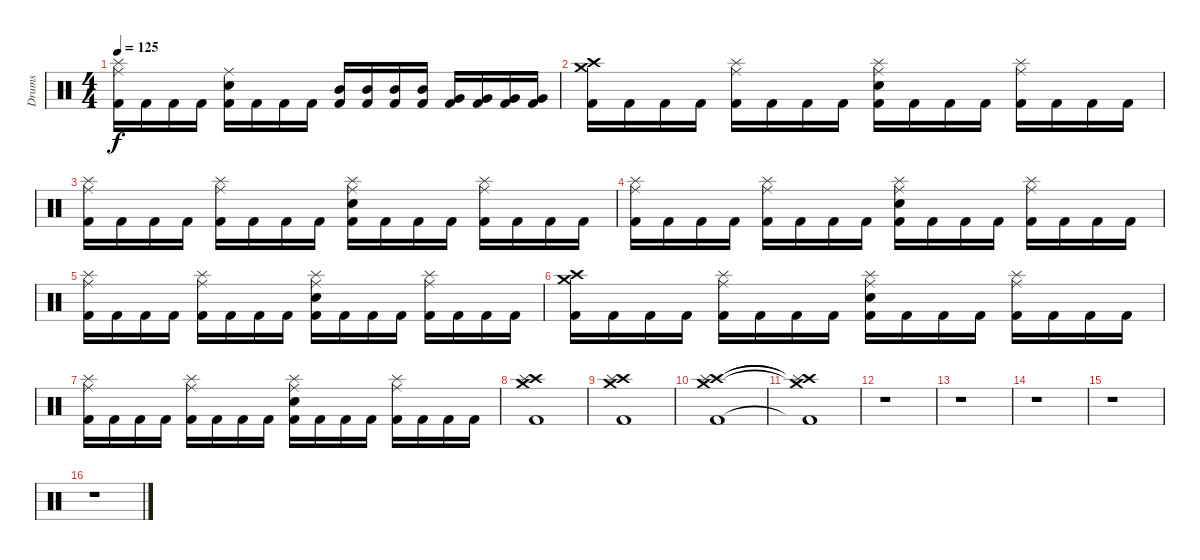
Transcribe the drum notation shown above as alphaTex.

\track ("Drums" "Drums") {instrument percussion}
\staff {score}
\articulation defaults
\ts (4 4)
\tempo 125
\clef neutral
\ks c
("Ride (middle)" "Splash (hit)" "Kick (hit) 2").16{dy f} "Kick (hit) 2".16 "Kick (hit) 2".16 "Kick (hit) 2".16 ("Ride (middle)" "Snare (hit) 2" "Kick (hit) 2").16 "Kick (hit) 2".16 "Kick (hit) 2".16 "Kick (hit) 2".16 ("Mid Tom (hit)" "Kick (hit) 2").16 ("Mid Tom (hit)" "Kick (hit) 2").16 ("Mid Tom (hit)" "Kick (hit) 2").16 ("Mid Tom (hit)" "Kick (hit) 2").16 ("Very Low Tom (hit)" "Kick (hit) 2").16 ("Very Low Tom (hit)" "Kick (hit) 2").16 ("Very Low Tom (hit)" "Kick (hit) 2").16 ("Very Low Tom (hit)" "Kick (hit) 2").16 |
("Crash high (hit)" "Crash medium (hit)" "Kick (hit) 2").16 "Kick (hit) 2".16 "Kick (hit) 2".16 "Kick (hit) 2".16 ("Ride (middle)" "Splash (hit)" "Kick (hit) 2").16 "Kick (hit) 2".16 "Kick (hit) 2".16 "Kick (hit) 2".16 ("Ride (middle)" "Snare (hit) 2" "Splash (hit)" "Kick (hit) 2").16 "Kick (hit) 2".16 "Kick (hit) 2".16 "Kick (hit) 2".16 ("Ride (middle)" "Splash (hit)" "Kick (hit) 2").16 "Kick (hit) 2".16 "Kick (hit) 2".16 "Kick (hit) 2".16 |
("Ride (middle)" "Splash (hit)" "Kick (hit) 2").16 "Kick (hit) 2".16 "Kick (hit) 2".16 "Kick (hit) 2".16 ("Ride (middle)" "Splash (hit)" "Kick (hit) 2").16 "Kick (hit) 2".16 "Kick (hit) 2".16 "Kick (hit) 2".16 ("Ride (middle)" "Snare (hit) 2" "Splash (hit)" "Kick (hit) 2").16 "Kick (hit) 2".16 "Kick (hit) 2".16 "Kick (hit) 2".16 ("Ride (middle)" "Splash (hit)" "Kick (hit) 2").16 "Kick (hit) 2".16 "Kick (hit) 2".16 "Kick (hit) 2".16 |
("Ride (middle)" "Splash (hit)" "Kick (hit) 2").16 "Kick (hit) 2".16 "Kick (hit) 2".16 "Kick (hit) 2".16 ("Ride (middle)" "Splash (hit)" "Kick (hit) 2").16 "Kick (hit) 2".16 "Kick (hit) 2".16 "Kick (hit) 2".16 ("Ride (middle)" "Snare (hit) 2" "Splash (hit)" "Kick (hit) 2").16 "Kick (hit) 2".16 "Kick (hit) 2".16 "Kick (hit) 2".16 ("Ride (middle)" "Splash (hit)" "Kick (hit) 2").16 "Kick (hit) 2".16 "Kick (hit) 2".16 "Kick (hit) 2".16 |
("Ride (middle)" "Splash (hit)" "Kick (hit) 2").16 "Kick (hit) 2".16 "Kick (hit) 2".16 "Kick (hit) 2".16 ("Ride (middle)" "Splash (hit)" "Kick (hit) 2").16 "Kick (hit) 2".16 "Kick (hit) 2".16 "Kick (hit) 2".16 ("Ride (middle)" "Snare (hit) 2" "Splash (hit)" "Kick (hit) 2").16 "Kick (hit) 2".16 "Kick (hit) 2".16 "Kick (hit) 2".16 ("Ride (middle)" "Splash (hit)" "Kick (hit) 2").16 "Kick (hit) 2".16 "Kick (hit) 2".16 "Kick (hit) 2".16 |
("Crash high (hit)" "Crash medium (hit)" "Kick (hit) 2").16 "Kick (hit) 2".16 "Kick (hit) 2".16 "Kick (hit) 2".16 ("Ride (middle)" "Splash (hit)" "Kick (hit) 2").16 "Kick (hit) 2".16 "Kick (hit) 2".16 "Kick (hit) 2".16 ("Ride (middle)" "Snare (hit) 2" "Splash (hit)" "Kick (hit) 2").16 "Kick (hit) 2".16 "Kick (hit) 2".16 "Kick (hit) 2".16 ("Ride (middle)" "Splash (hit)" "Kick (hit) 2").16 "Kick (hit) 2".16 "Kick (hit) 2".16 "Kick (hit) 2".16 |
("Ride (middle)" "Splash (hit)" "Kick (hit) 2").16 "Kick (hit) 2".16 "Kick (hit) 2".16 "Kick (hit) 2".16 ("Ride (middle)" "Splash (hit)" "Kick (hit) 2").16 "Kick (hit) 2".16 "Kick (hit) 2".16 "Kick (hit) 2".16 ("Ride (middle)" "Snare (hit) 2" "Splash (hit)" "Kick (hit) 2").16 "Kick (hit) 2".16 "Kick (hit) 2".16 "Kick (hit) 2".16 ("Ride (middle)" "Splash (hit)" "Kick (hit) 2").16 "Kick (hit) 2".16 "Kick (hit) 2".16 "Kick (hit) 2".16 |
("Crash high (hit)" "Crash medium (hit)" "Splash (hit)" "Kick (hit) 2").1 |
("Crash high (hit)" "Crash medium (hit)" "Splash (hit)" "Kick (hit) 2").1 |
("Crash high (hit)" "Crash medium (hit)" "Splash (hit)" "Kick (hit) 2").1 |
("Crash high (hit)"{t} "Crash medium (hit)"{t} "Splash (hit)"{t} "Kick (hit) 2"{t}).1 |
r.1 |
r.1 |
r.1 |
r.1 |
r.1
